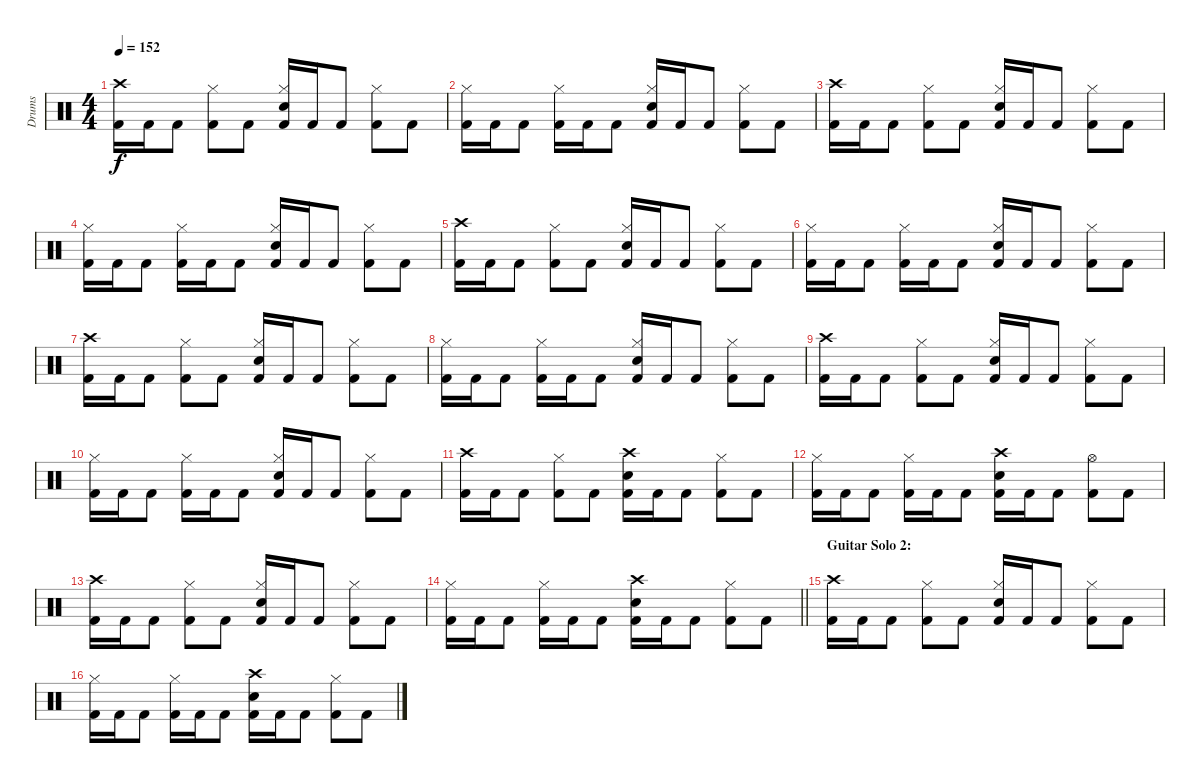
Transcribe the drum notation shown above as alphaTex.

\track ("Drums" "Drums") {instrument percussion}
\staff {score}
\articulation defaults
\ts (4 4)
\tempo 152
\clef neutral
\ks c
("Crash high (hit)" "Kick (hit) 2").16{dy f} "Kick (hit) 2".16 "Kick (hit) 2".8 ("Hi-Hat (closed)" "Kick (hit) 2").8 "Kick (hit) 2".8 ("Hi-Hat (closed)" "Snare (hit) 2" "Kick (hit) 2").16 "Kick (hit) 2".16 "Kick (hit) 2".8 ("Hi-Hat (closed)" "Kick (hit) 2").8 "Kick (hit) 2".8 |
("Hi-Hat (closed)" "Kick (hit) 2").16 "Kick (hit) 2".16 "Kick (hit) 2".8 ("Hi-Hat (closed)" "Kick (hit) 2").16 "Kick (hit) 2".16 "Kick (hit) 2".8 ("Hi-Hat (closed)" "Snare (hit) 2" "Kick (hit) 2").16 "Kick (hit) 2".16 "Kick (hit) 2".8 ("Hi-Hat (closed)" "Kick (hit) 2").8 "Kick (hit) 2".8 |
("Crash high (hit)" "Kick (hit) 2").16 "Kick (hit) 2".16 "Kick (hit) 2".8 ("Hi-Hat (closed)" "Kick (hit) 2").8 "Kick (hit) 2".8 ("Hi-Hat (closed)" "Snare (hit) 2" "Kick (hit) 2").16 "Kick (hit) 2".16 "Kick (hit) 2".8 ("Hi-Hat (closed)" "Kick (hit) 2").8 "Kick (hit) 2".8 |
("Hi-Hat (closed)" "Kick (hit) 2").16 "Kick (hit) 2".16 "Kick (hit) 2".8 ("Hi-Hat (closed)" "Kick (hit) 2").16 "Kick (hit) 2".16 "Kick (hit) 2".8 ("Hi-Hat (closed)" "Snare (hit) 2" "Kick (hit) 2").16 "Kick (hit) 2".16 "Kick (hit) 2".8 ("Hi-Hat (closed)" "Kick (hit) 2").8 "Kick (hit) 2".8 |
("Crash high (hit)" "Kick (hit) 2").16 "Kick (hit) 2".16 "Kick (hit) 2".8 ("Hi-Hat (closed)" "Kick (hit) 2").8 "Kick (hit) 2".8 ("Hi-Hat (closed)" "Snare (hit) 2" "Kick (hit) 2").16 "Kick (hit) 2".16 "Kick (hit) 2".8 ("Hi-Hat (closed)" "Kick (hit) 2").8 "Kick (hit) 2".8 |
("Hi-Hat (closed)" "Kick (hit) 2").16 "Kick (hit) 2".16 "Kick (hit) 2".8 ("Hi-Hat (closed)" "Kick (hit) 2").16 "Kick (hit) 2".16 "Kick (hit) 2".8 ("Hi-Hat (closed)" "Snare (hit) 2" "Kick (hit) 2").16 "Kick (hit) 2".16 "Kick (hit) 2".8 ("Hi-Hat (closed)" "Kick (hit) 2").8 "Kick (hit) 2".8 |
("Crash high (hit)" "Kick (hit) 2").16 "Kick (hit) 2".16 "Kick (hit) 2".8 ("Hi-Hat (closed)" "Kick (hit) 2").8 "Kick (hit) 2".8 ("Hi-Hat (closed)" "Snare (hit) 2" "Kick (hit) 2").16 "Kick (hit) 2".16 "Kick (hit) 2".8 ("Hi-Hat (closed)" "Kick (hit) 2").8 "Kick (hit) 2".8 |
("Hi-Hat (closed)" "Kick (hit) 2").16 "Kick (hit) 2".16 "Kick (hit) 2".8 ("Hi-Hat (closed)" "Kick (hit) 2").16 "Kick (hit) 2".16 "Kick (hit) 2".8 ("Hi-Hat (closed)" "Snare (hit) 2" "Kick (hit) 2").16 "Kick (hit) 2".16 "Kick (hit) 2".8 ("Hi-Hat (closed)" "Kick (hit) 2").8 "Kick (hit) 2".8 |
("Crash high (hit)" "Kick (hit) 2").16 "Kick (hit) 2".16 "Kick (hit) 2".8 ("Hi-Hat (closed)" "Kick (hit) 2").8 "Kick (hit) 2".8 ("Hi-Hat (closed)" "Snare (hit) 2" "Kick (hit) 2").16 "Kick (hit) 2".16 "Kick (hit) 2".8 ("Hi-Hat (closed)" "Kick (hit) 2").8 "Kick (hit) 2".8 |
("Hi-Hat (closed)" "Kick (hit) 2").16 "Kick (hit) 2".16 "Kick (hit) 2".8 ("Hi-Hat (closed)" "Kick (hit) 2").16 "Kick (hit) 2".16 "Kick (hit) 2".8 ("Hi-Hat (closed)" "Snare (hit) 2" "Kick (hit) 2").16 "Kick (hit) 2".16 "Kick (hit) 2".8 ("Hi-Hat (closed)" "Kick (hit) 2").8 "Kick (hit) 2".8 |
("Crash high (hit)" "Kick (hit) 2").16 "Kick (hit) 2".16 "Kick (hit) 2".8 ("Hi-Hat (closed)" "Kick (hit) 2").8 "Kick (hit) 2".8 ("Crash high (hit)" "Snare (hit) 2" "Kick (hit) 2").16 "Kick (hit) 2".16 "Kick (hit) 2".8 ("Hi-Hat (closed)" "Kick (hit) 2").8 "Kick (hit) 2".8 |
("Hi-Hat (closed)" "Kick (hit) 2").16 "Kick (hit) 2".16 "Kick (hit) 2".8 ("Hi-Hat (closed)" "Kick (hit) 2").16 "Kick (hit) 2".16 "Kick (hit) 2".8 ("Crash high (hit)" "Snare (hit) 2" "Kick (hit) 2").16 "Kick (hit) 2".16 "Kick (hit) 2".8 ("Hi-Hat (open)" "Kick (hit) 2").8 "Kick (hit) 2".8 |
("Crash high (hit)" "Kick (hit) 2").16 "Kick (hit) 2".16 "Kick (hit) 2".8 ("Hi-Hat (closed)" "Kick (hit) 2").8 "Kick (hit) 2".8 ("Hi-Hat (closed)" "Snare (hit) 2" "Kick (hit) 2").16 "Kick (hit) 2".16 "Kick (hit) 2".8 ("Hi-Hat (closed)" "Kick (hit) 2").8 "Kick (hit) 2".8 |
\barLineRight lightlight
("Hi-Hat (closed)" "Kick (hit) 2").16 "Kick (hit) 2".16 "Kick (hit) 2".8 ("Hi-Hat (closed)" "Kick (hit) 2").16 "Kick (hit) 2".16 "Kick (hit) 2".8 ("Crash high (hit)" "Snare (hit) 2" "Kick (hit) 2").16 "Kick (hit) 2".16 "Kick (hit) 2".8 ("Hi-Hat (closed)" "Kick (hit) 2").8 "Kick (hit) 2".8 |
\section ("" "Guitar Solo 2:")
("Crash high (hit)" "Kick (hit) 2").16 "Kick (hit) 2".16 "Kick (hit) 2".8 ("Hi-Hat (closed)" "Kick (hit) 2").8 "Kick (hit) 2".8 ("Hi-Hat (closed)" "Snare (hit) 2" "Kick (hit) 2").16 "Kick (hit) 2".16 "Kick (hit) 2".8 ("Hi-Hat (closed)" "Kick (hit) 2").8 "Kick (hit) 2".8 |
("Hi-Hat (closed)" "Kick (hit) 2").16 "Kick (hit) 2".16 "Kick (hit) 2".8 ("Hi-Hat (closed)" "Kick (hit) 2").16 "Kick (hit) 2".16 "Kick (hit) 2".8 ("Crash high (hit)" "Snare (hit) 2" "Kick (hit) 2").16 "Kick (hit) 2".16 "Kick (hit) 2".8 ("Hi-Hat (closed)" "Kick (hit) 2").8 "Kick (hit) 2".8
